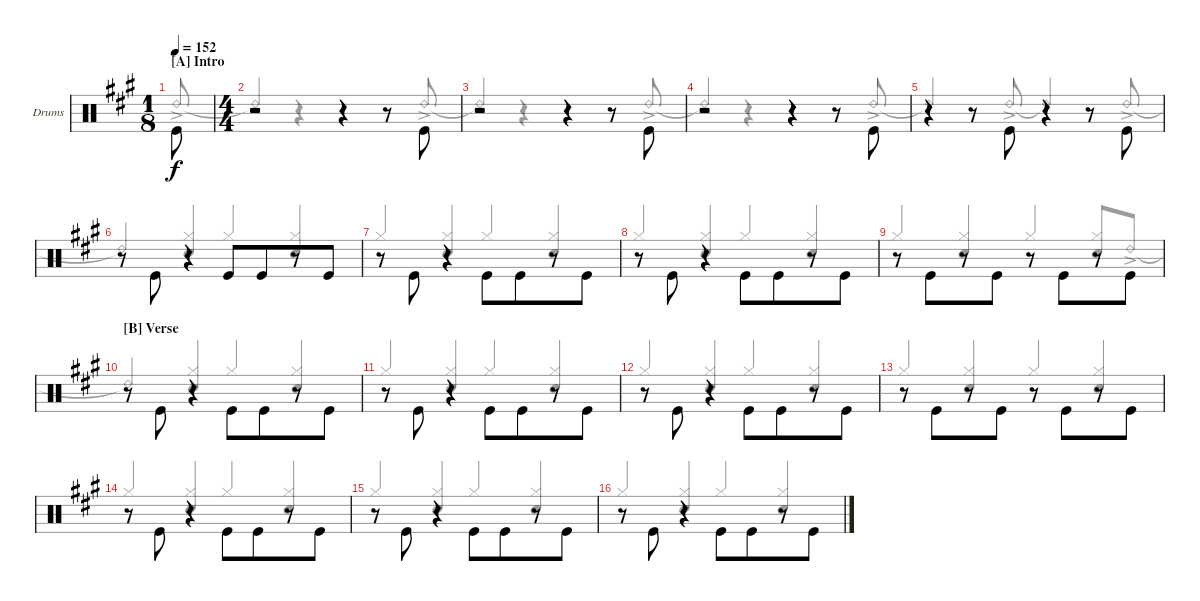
\defaultSystemsLayout 4
\bracketExtendMode groupsimilarinstruments
\firstSystemTrackNameOrientation horizontal
\otherSystemsTrackNameOrientation horizontal
\track ("Drumkit" "Drums") {instrument percussion}
\staff {score}
\articulation defaults
\voice
\ts (1 8)
\section ("A" "Intro")
\tempo 152
\clef neutral
\scale
1.08827
\ks a "Kick (hit)".8{dy f beam invert}
|
\ts (4 4)
\beaming (8 4 4)
\scale
0.911728 r.2 r.4 r.8 "Kick (hit)".8{beam invert} |
\scale
1.05801 r.2 r.4 r.8 "Kick (hit)".8{beam invert} |
\scale
0.941992 r.2 r.4 r.8 "Kick (hit)".8{beam invert} |
\scale
1.05801 r.4 r.8 "Kick (hit)".8{beam invert} r.4 r.8 "Kick (hit)".8{beam invert} |
\scale
0.941992 r.8 "Kick (hit)".8{beam invert} r.4 "Kick (hit)".8 "Kick (hit)".8 r.8 "Kick (hit)".8 |
\scale
1.05801 r.8 "Kick (hit)".8{beam invert} r.4 "Kick (hit)".8{beam invert} "Kick (hit)".8 r.8 "Kick (hit)".8 |
\scale
0.941992 r.8 "Kick (hit)".8{beam invert} r.4 "Kick (hit)".8{beam invert} "Kick (hit)".8 r.8 "Kick (hit)".8 |
\scale
1.05801 r.8 "Kick (hit)".8{beam invert} r.8 "Kick (hit)".8 r.8{beam invert} "Kick (hit)".8{beam invert} r.8 "Kick (hit)".8 |
\section ("B" "Verse")
\scale
0.941992 r.8 "Kick (hit)".8{beam invert} r.4 "Kick (hit)".8{beam invert} "Kick (hit)".8 r.8 "Kick (hit)".8 |
\scale
1.05801 r.8 "Kick (hit)".8{beam invert} r.4 "Kick (hit)".8{beam invert} "Kick (hit)".8 r.8 "Kick (hit)".8 |
\scale
0.941992 r.8 "Kick (hit)".8{beam invert} r.4 "Kick (hit)".8{beam invert} "Kick (hit)".8 r.8 "Kick (hit)".8 |
\scale
1.05801 r.8 "Kick (hit)".8{beam invert} r.8 "Kick (hit)".8 r.8{beam invert} "Kick (hit)".8{beam invert} r.8 "Kick (hit)".8 |
\scale
0.941992 r.8 "Kick (hit)".8{beam invert} r.4 "Kick (hit)".8{beam invert} "Kick (hit)".8 r.8 "Kick (hit)".8 |
\scale
1.05801 r.8 "Kick (hit)".8{beam invert} r.4 "Kick (hit)".8{beam invert} "Kick (hit)".8 r.8 "Kick (hit)".8 |
\scale
0.941992 r.8 "Kick (hit)".8{beam invert} r.4 "Kick (hit)".8{beam invert} "Kick (hit)".8 r.8 "Kick (hit)".8
\voice
\clef neutral
\ottava regular
\simile none
\scale
1.08827
\ks a "Ride (bell) 2"{ac}.8{dy f beam invert}
|
\scale
0.911728 "Ride (bell) 2"{t}.4{beam invert} r.4 r.4 r.8 "Ride (bell) 2"{ac}.8{beam invert} |
\scale
1.05801 "Ride (bell) 2"{t}.4{beam invert} r.4 r.4 r.8 "Ride (bell) 2"{ac}.8{beam invert} |
\scale
0.941992 "Ride (bell) 2"{t}.4{beam invert} r.4 r.4 r.8 "Ride (bell) 2"{ac}.8{beam invert} |
\scale
1.05801 "Ride (bell) 2"{t}.4{beam invert} r.8 "Ride (bell) 2"{ac}.8{beam invert} "Ride (bell) 2"{t}.4{beam invert} r.8 "Ride (bell) 2"{ac}.8{beam invert} |
\scale
0.941992 "Ride (bell) 2"{t}.4{beam invert} ("Hi-Hat (closed)" "Snare (hit) 2").4{beam invert} "Hi-Hat (closed)".4{beam invert} ("Hi-Hat (closed)" "Snare (hit) 2").4{beam invert} |
\scale
1.05801 "Hi-Hat (closed)".4{beam invert} ("Hi-Hat (closed)" "Snare (hit) 2").4{beam invert} "Hi-Hat (closed)".4{beam invert} ("Hi-Hat (closed)" "Snare (hit) 2").4{beam invert} |
\scale
0.941992 "Hi-Hat (closed)".4{beam invert} ("Hi-Hat (closed)" "Snare (hit) 2").4{beam invert} "Hi-Hat (closed)".4{beam invert} ("Hi-Hat (closed)" "Snare (hit) 2").4{beam invert} |
\scale
1.05801 "Hi-Hat (closed)".4{beam invert} ("Hi-Hat (closed)" "Snare (hit) 2").4{beam invert} "Hi-Hat (closed)".4{beam invert} ("Hi-Hat (closed)" "Snare (hit) 2").8{beam invert} "Ride (bell) 2"{ac}.8 |
\scale
0.941992 "Ride (bell) 2"{t}.4{beam invert} ("Hi-Hat (closed)" "Snare (hit) 2").4{beam invert} "Hi-Hat (closed)".4{beam invert} ("Hi-Hat (closed)" "Snare (hit) 2").4{beam invert} |
\scale
1.05801 "Hi-Hat (closed)".4{beam invert} ("Hi-Hat (closed)" "Snare (hit) 2").4{beam invert} "Hi-Hat (closed)".4{beam invert} ("Hi-Hat (closed)" "Snare (hit) 2").4{beam invert} |
\scale
0.941992 "Hi-Hat (closed)".4{beam invert} ("Hi-Hat (closed)" "Snare (hit) 2").4{beam invert} "Hi-Hat (closed)".4{beam invert} ("Hi-Hat (closed)" "Snare (hit) 2").4{beam invert} |
\scale
1.05801 "Hi-Hat (closed)".4{beam invert} ("Hi-Hat (closed)" "Snare (hit) 2").4{beam invert} "Hi-Hat (closed)".4{beam invert} ("Hi-Hat (closed)" "Snare (hit) 2").4{beam invert} |
\scale
0.941992 "Hi-Hat (closed)".4{beam invert} ("Hi-Hat (closed)" "Snare (hit) 2").4{beam invert} "Hi-Hat (closed)".4{beam invert} ("Hi-Hat (closed)" "Snare (hit) 2").4{beam invert} |
\scale
1.05801 "Hi-Hat (closed)".4{beam invert} ("Hi-Hat (closed)" "Snare (hit) 2").4{beam invert} "Hi-Hat (closed)".4{beam invert} ("Hi-Hat (closed)" "Snare (hit) 2").4{beam invert} |
\scale
0.941992 "Hi-Hat (closed)".4{beam invert} ("Hi-Hat (closed)" "Snare (hit) 2").4{beam invert} "Hi-Hat (closed)".4{beam invert} ("Hi-Hat (closed)" "Snare (hit) 2").4{beam invert}
